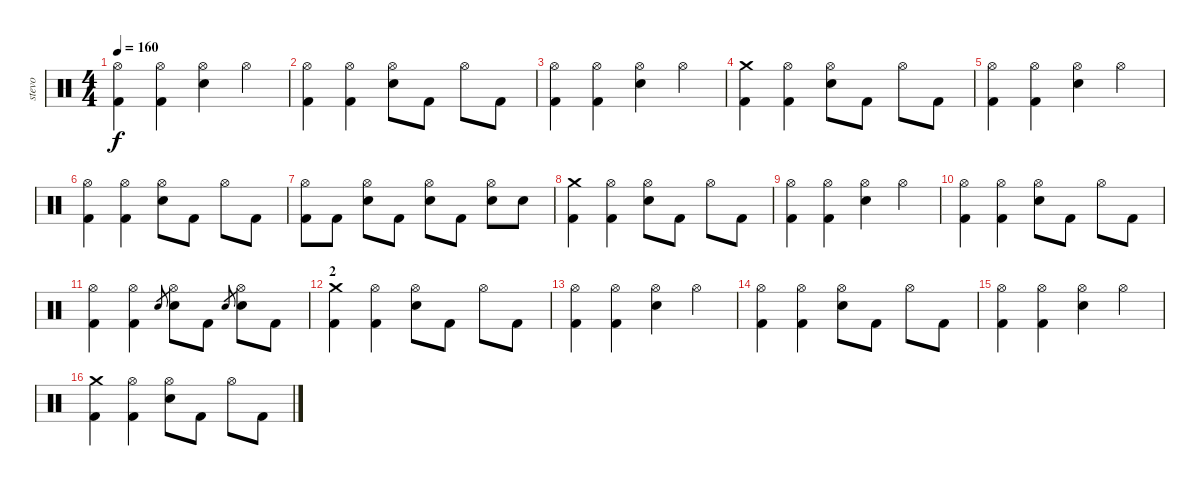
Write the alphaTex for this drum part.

\track ("stevo" "stevo") {instrument percussion}
\staff {score}
\articulation defaults
\ts (4 4)
\tempo 160
\clef neutral
\ks c
("Hi-Hat (open)" "Kick (hit) 2").4{dy f} ("Hi-Hat (open)" "Kick (hit) 2").4 ("Electric Snare (hit)" "Hi-Hat (open)").4 "Hi-Hat (open)".4 |
("Hi-Hat (open)" "Kick (hit) 2").4 ("Hi-Hat (open)" "Kick (hit) 2").4 ("Electric Snare (hit)" "Hi-Hat (open)").8 "Kick (hit) 2".8 "Hi-Hat (open)".8 "Kick (hit) 2".8 |
("Hi-Hat (open)" "Kick (hit) 2").4 ("Hi-Hat (open)" "Kick (hit) 2").4 ("Electric Snare (hit)" "Hi-Hat (open)").4 "Hi-Hat (open)".4 |
("Crash medium (hit)" "Kick (hit) 2").4 ("Hi-Hat (open)" "Kick (hit) 2").4 ("Electric Snare (hit)" "Hi-Hat (open)").8 "Kick (hit) 2".8 "Hi-Hat (open)".8 "Kick (hit) 2".8 |
("Hi-Hat (open)" "Kick (hit) 2").4 ("Hi-Hat (open)" "Kick (hit) 2").4 ("Electric Snare (hit)" "Hi-Hat (open)").4 "Hi-Hat (open)".4 |
("Hi-Hat (open)" "Kick (hit) 2").4 ("Hi-Hat (open)" "Kick (hit) 2").4 ("Electric Snare (hit)" "Hi-Hat (open)").8 "Kick (hit) 2".8 "Hi-Hat (open)".8 "Kick (hit) 2".8 |
("Hi-Hat (open)" "Kick (hit) 2").8 "Kick (hit) 2".8 ("Hi-Hat (open)" "Electric Snare (hit)").8 "Kick (hit) 2".8 ("Hi-Hat (open)" "Electric Snare (hit)").8 "Kick (hit) 2".8 ("Hi-Hat (open)" "Electric Snare (hit)").8 "Electric Snare (hit)".8 |
("Crash medium (hit)" "Kick (hit) 2").4 ("Hi-Hat (open)" "Kick (hit) 2").4 ("Electric Snare (hit)" "Hi-Hat (open)").8 "Kick (hit) 2".8 "Hi-Hat (open)".8 "Kick (hit) 2".8 |
("Hi-Hat (open)" "Kick (hit) 2").4 ("Hi-Hat (open)" "Kick (hit) 2").4 ("Electric Snare (hit)" "Hi-Hat (open)").4 "Hi-Hat (open)".4 |
("Hi-Hat (open)" "Kick (hit) 2").4 ("Hi-Hat (open)" "Kick (hit) 2").4 ("Electric Snare (hit)" "Hi-Hat (open)").8 "Kick (hit) 2".8 "Hi-Hat (open)".8 "Kick (hit) 2".8 |
("Hi-Hat (open)" "Kick (hit) 2").4 ("Hi-Hat (open)" "Kick (hit) 2").4 "Electric Snare (hit)".8{gr} ("Electric Snare (hit)" "Hi-Hat (open)").8 "Kick (hit) 2".8 "Electric Snare (hit)".8{gr} ("Hi-Hat (open)" "Electric Snare (hit)").8 "Kick (hit) 2".8 |
\section ("" "2")
("Crash medium (hit)" "Kick (hit) 2").4 ("Hi-Hat (open)" "Kick (hit) 2").4 ("Electric Snare (hit)" "Hi-Hat (open)").8 "Kick (hit) 2".8 "Hi-Hat (open)".8 "Kick (hit) 2".8 |
("Hi-Hat (open)" "Kick (hit) 2").4 ("Hi-Hat (open)" "Kick (hit) 2").4 ("Electric Snare (hit)" "Hi-Hat (open)").4 "Hi-Hat (open)".4 |
("Hi-Hat (open)" "Kick (hit) 2").4 ("Hi-Hat (open)" "Kick (hit) 2").4 ("Electric Snare (hit)" "Hi-Hat (open)").8 "Kick (hit) 2".8 "Hi-Hat (open)".8 "Kick (hit) 2".8 |
("Hi-Hat (open)" "Kick (hit) 2").4 ("Hi-Hat (open)" "Kick (hit) 2").4 ("Electric Snare (hit)" "Hi-Hat (open)").4 "Hi-Hat (open)".4 |
("Crash medium (hit)" "Kick (hit) 2").4 ("Hi-Hat (open)" "Kick (hit) 2").4 ("Electric Snare (hit)" "Hi-Hat (open)").8 "Kick (hit) 2".8 "Hi-Hat (open)".8 "Kick (hit) 2".8
